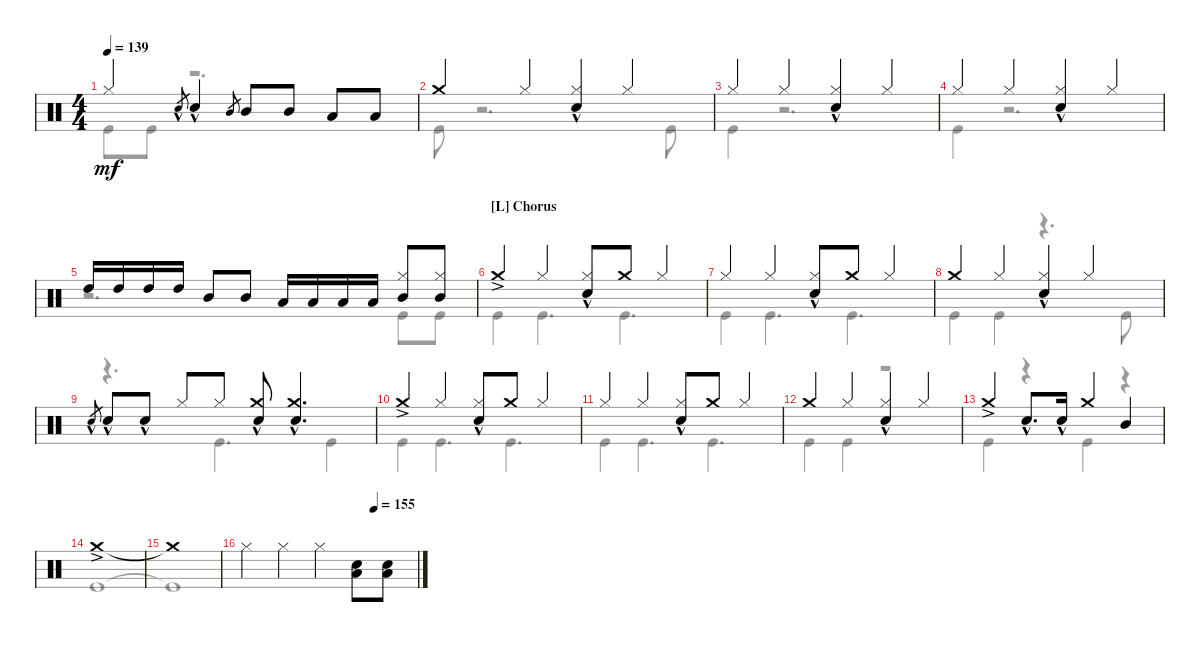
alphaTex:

\defaultSystemsLayout 4
\bracketExtendMode groupsimilarinstruments
\singleTrackTrackNamePolicy hidden
\multiTrackTrackNamePolicy hidden
\firstSystemTrackNameOrientation horizontal
\otherSystemsTrackNameOrientation horizontal
\track ("Nicko McBrain" "Drums") {instrument percussion}
\staff {score}
\articulation defaults
\voice
\ts (4 4)
\tempo 139
\clef neutral
\scale
1.02648
\ks c "Hi-Hat (closed)".4{dy mf} "Snare (hit) 2"{hac}.8{gr} "Snare (hit) 2"{hac}.4 "Mid Tom (hit)".8{gr} "Mid Tom (hit)".8 "Mid Tom (hit)".8 "Low Tom (hit)".8 "Low Tom (hit)".8
|
\scale
0.973518 "Crash medium (hit)".4 "Hi-Hat (closed)".4 ("Hi-Hat (closed)" "Snare (hit) 2"{hac}).4 "Hi-Hat (closed)".4 |
\scale
1.02648 "Hi-Hat (closed)".4 "Hi-Hat (closed)".4 ("Snare (hit) 2"{hac} "Hi-Hat (closed)").4 "Hi-Hat (closed)".4 |
\scale
0.973518 "Hi-Hat (closed)".4 "Hi-Hat (closed)".4 ("Snare (hit) 2"{hac} "Hi-Hat (closed)").4 "Hi-Hat (closed)".4 |
\scale
1.02648 "High Tom (hit)".16 "High Tom (hit)".16 "High Tom (hit)".16 "High Tom (hit)".16 "Mid Tom (hit)".8 "Mid Tom (hit)".8 "Low Tom (hit)".16 "Low Tom (hit)".16 "Low Tom (hit)".16 "Low Tom (hit)".16 ("Mid Tom (hit)" "Hi-Hat (closed)").8 ("Mid Tom (hit)" "Hi-Hat (closed)").8 |
\section ("L" "Chorus")
\scale
0.973518 "Crash medium (hit)"{ac}.4 "Hi-Hat (closed)".4 ("Snare (hit) 2"{hac} "Hi-Hat (closed)").8 "Crash medium (hit)".8 "Hi-Hat (closed)".4 |
\scale
1.02648 "Hi-Hat (closed)".4 "Hi-Hat (closed)".4 ("Snare (hit) 2"{hac} "Hi-Hat (closed)").8 "Crash medium (hit)".8 "Hi-Hat (closed)".4 |
\scale
0.973518 "Crash medium (hit)".4 "Hi-Hat (closed)".4 ("Snare (hit) 2"{hac} "Hi-Hat (closed)").4 "Hi-Hat (closed)".4 |
\scale
1.02648 "Snare (hit) 2"{hac}.8{gr} "Snare (hit) 2"{hac}.8 "Snare (hit) 2"{hac}.8 "Hi-Hat (closed)".8 "Hi-Hat (closed)".8 ("Crash medium (hit)" "Snare (hit) 2"{hac}).8 ("Crash medium (hit)" "Snare (hit) 2"{hac}).4{d} |
\scale
0.973518 "Crash medium (hit)"{ac}.4 "Hi-Hat (closed)".4 ("Snare (hit) 2"{hac} "Hi-Hat (closed)").8 "Crash medium (hit)".8 "Hi-Hat (closed)".4 |
\scale
1.02648 "Hi-Hat (closed)".4 "Hi-Hat (closed)".4 ("Snare (hit) 2"{hac} "Hi-Hat (closed)").8 "Crash medium (hit)".8 "Hi-Hat (closed)".4 |
\scale
0.973518 "Crash medium (hit)".4 "Hi-Hat (closed)".4 ("Snare (hit) 2"{hac} "Hi-Hat (closed)").4 "Hi-Hat (closed)".4 |
\scale
1.02648 "Crash medium (hit)"{ac}.4 "Snare (hit) 2"{hac}.8{d} "Snare (hit) 2"{hac}.16 "Crash medium (hit)".4 "Mid Tom (hit)".4 |
\scale
0.973518 "Crash medium (hit)"{ac}.1 |
\scale
1.02648 "Crash medium (hit)"{t}.1 |
\tempo (155 0.75)
\scale
0.973518 "Hi-Hat (closed)".4 "Hi-Hat (closed)".4 "Hi-Hat (closed)".4 ("Snare (hit) 2" "Low Tom (hit)").8 ("Snare (hit) 2" "Low Tom (hit)").8
\voice
\clef neutral
\ottava regular
\simile none
\scale
1.02648
\ks c "Kick (hit)".8{dy mf} "Kick (hit)".8
r.2{d} |
\scale
0.973518 "Kick (hit)".8 r.2{d} "Kick (hit)".8 |
\scale
1.02648 "Kick (hit)".4 r.2{d} |
\scale
0.973518 "Kick (hit)".4 r.2{d} |
\scale
1.02648 r.2{d} "Kick (hit)".8 "Kick (hit)".8 |
\scale
0.973518 "Kick (hit)".4 "Kick (hit)".4{d} "Kick (hit)".4{d} |
\scale
1.02648 "Kick (hit)".4 "Kick (hit)".4{d} "Kick (hit)".4{d} |
\scale
0.973518 "Kick (hit)".4 "Kick (hit)".4 r.4{d} "Kick (hit)".8 |
\scale
1.02648 r.4{d} "Kick (hit)".4{d} "Kick (hit)".4 |
\scale
0.973518 "Kick (hit)".4 "Kick (hit)".4{d} "Kick (hit)".4{d} |
\scale
1.02648 "Kick (hit)".4 "Kick (hit)".4{d} "Kick (hit)".4{d} |
\scale
0.973518 "Kick (hit)".4 "Kick (hit)".4 r.2 |
\scale
1.02648 "Kick (hit)".4 r.4 "Kick (hit)".4 r.4 |
\scale
0.973518 "Kick (hit)".1 |
\scale
1.02648 "Kick (hit)"{t}.1 |
\scale
0.973518
